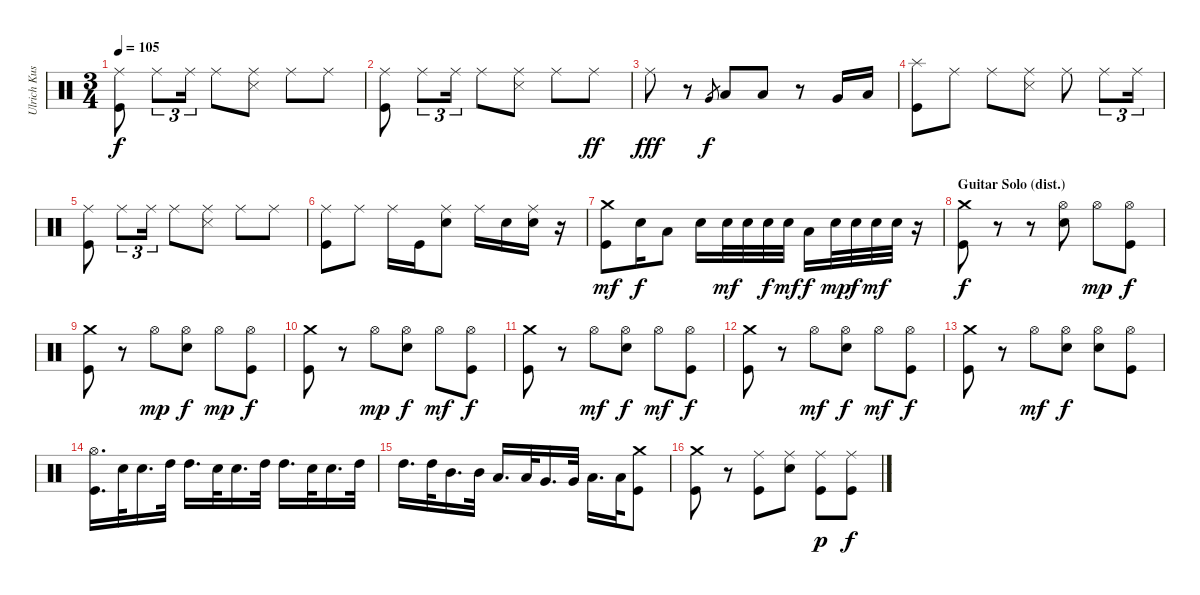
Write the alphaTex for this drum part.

\track ("Ulrich Kusch" "Ulrich Kus") {instrument percussion}
\staff {score}
\articulation defaults
\ts (3 4)
\tempo 105
\clef neutral
\ks c
("Ride (middle)" "Kick (hit)").8{dy f} "Ride (middle)".8{tu (3 2)} "Ride (middle)".16{tu (3 2)} "Ride (middle)".8 ("Ride (middle)" "Snare (side stick) 3").8 "Ride (middle)".8 "Ride (middle)".8 |
("Ride (middle)" "Kick (hit)").8 "Ride (middle)".8{tu (3 2)} "Ride (middle)".16{tu (3 2)} "Ride (middle)".8 ("Ride (middle)" "Snare (side stick) 3").8 "Ride (middle)".8 "Ride (middle)".8{dy ff} |
"Ride (middle)".8{dy fff} r.8 "Very Low Tom (hit)".8{gr dy f} "Low Tom (hit)".8 "Low Tom (hit)".8 r.8 "Very Low Tom (hit)".16 "Low Floor Tom (hit)".16 |
("Splash (hit)" "Kick (hit)").8 "Ride (middle)".8 "Ride (middle)".8 ("Ride (middle)" "Snare (side stick) 3").8 "Ride (middle)".8 "Ride (middle)".8{tu (3 2)} "Ride (middle)".16{tu (3 2)} |
("Ride (middle)" "Kick (hit)").8 "Ride (middle)".8{tu (3 2)} "Ride (middle)".16{tu (3 2)} "Ride (middle)".8 ("Ride (middle)" "Snare (side stick) 3").8 "Ride (middle)".8 "Ride (middle)".8 |
("Ride (middle)" "Kick (hit)").8 "Ride (middle)".8 "Ride (middle)".16 "Kick (hit)".16 ("Ride (middle)" "Electric Snare (hit)").8 "Ride (middle)".16 "Electric Snare (hit)".16 ("Ride (middle)" "Electric Snare (hit)").16 r.16 |
("Crash medium (hit)" "Kick (hit)").8{dy mf} "Electric Snare (hit)".16{dy f} "Low Tom (hit)".8 "Electric Snare (hit)".16 "Electric Snare (hit)".32{dy mf} "Electric Snare (hit)".32 "Electric Snare (hit)".32{dy f} "Electric Snare (hit)".32{dy mf} "Low Tom (hit)".16{dy f} "Electric Snare (hit)".32{dy mp} "Electric Snare (hit)".32{dy f} "Electric Snare (hit)".32{dy mf} "Electric Snare (hit)".32 r.16 |
\section ("" "Guitar Solo (dist.)")
("Crash medium (hit)" "Kick (hit)").8{dy f} r.8 r.8 ("Hi-Hat (open)" "Electric Snare (hit)").8 "Hi-Hat (open)".8{dy mp} ("Hi-Hat (open)" "Kick (hit)").8{dy f} |
("Crash medium (hit)" "Kick (hit)").8 r.8 "Hi-Hat (open)".8{dy mp} ("Hi-Hat (open)" "Electric Snare (hit)").8{dy f} "Hi-Hat (open)".8{dy mp} ("Hi-Hat (open)" "Kick (hit)").8{dy f} |
("Crash medium (hit)" "Kick (hit)").8 r.8 "Hi-Hat (open)".8{dy mp} ("Hi-Hat (open)" "Electric Snare (hit)").8{dy f} "Hi-Hat (open)".8{dy mf} ("Hi-Hat (open)" "Kick (hit)").8{dy f} |
("Crash medium (hit)" "Kick (hit)").8 r.8 "Hi-Hat (open)".8{dy mf} ("Hi-Hat (open)" "Electric Snare (hit)").8{dy f} "Hi-Hat (open)".8{dy mf} ("Hi-Hat (open)" "Kick (hit)").8{dy f} |
("Crash medium (hit)" "Kick (hit)").8 r.8 "Hi-Hat (open)".8{dy mf} ("Hi-Hat (open)" "Electric Snare (hit)").8{dy f} "Hi-Hat (open)".8{dy mf} ("Hi-Hat (open)" "Kick (hit)").8{dy f} |
("Crash medium (hit)" "Kick (hit)").8 r.8 "Hi-Hat (open)".8{dy mf} ("Hi-Hat (open)" "Electric Snare (hit)").8{dy f} ("Hi-Hat (open)" "Electric Snare (hit)").8 ("Hi-Hat (open)" "Kick (hit)").8 |
("Hi-Hat (open)" "Kick (hit)").16{d} "Electric Snare (hit)".32 "Electric Snare (hit)".16{d} "High Tom (hit)".32 "High Tom (hit)".16{d} "Electric Snare (hit)".32 "Electric Snare (hit)".16{d} "High Tom (hit)".32 "High Tom (hit)".16{d} "Electric Snare (hit)".32 "Electric Snare (hit)".16{d} "High Tom (hit)".32 |
"High Tom (hit)".16{d} "High Tom (hit)".32 "Mid Tom (hit)".16{d} "Mid Tom (hit)".32 "Low Tom (hit)".16{d} "Low Tom (hit)".32 "Very Low Tom (hit)".16{d} "Very Low Tom (hit)".32 "Low Floor Tom (hit)".16{d} "Low Floor Tom (hit)".32 ("Crash medium (hit)" "Kick (hit)").8 |
("Crash medium (hit)" "Kick (hit)").8 r.8 ("Ride (middle)" "Kick (hit)").8 ("Ride (middle)" "Electric Snare (hit)").8 ("Ride (middle)" "Kick (hit)").8{dy p} ("Ride (middle)" "Kick (hit)").8{dy f}
